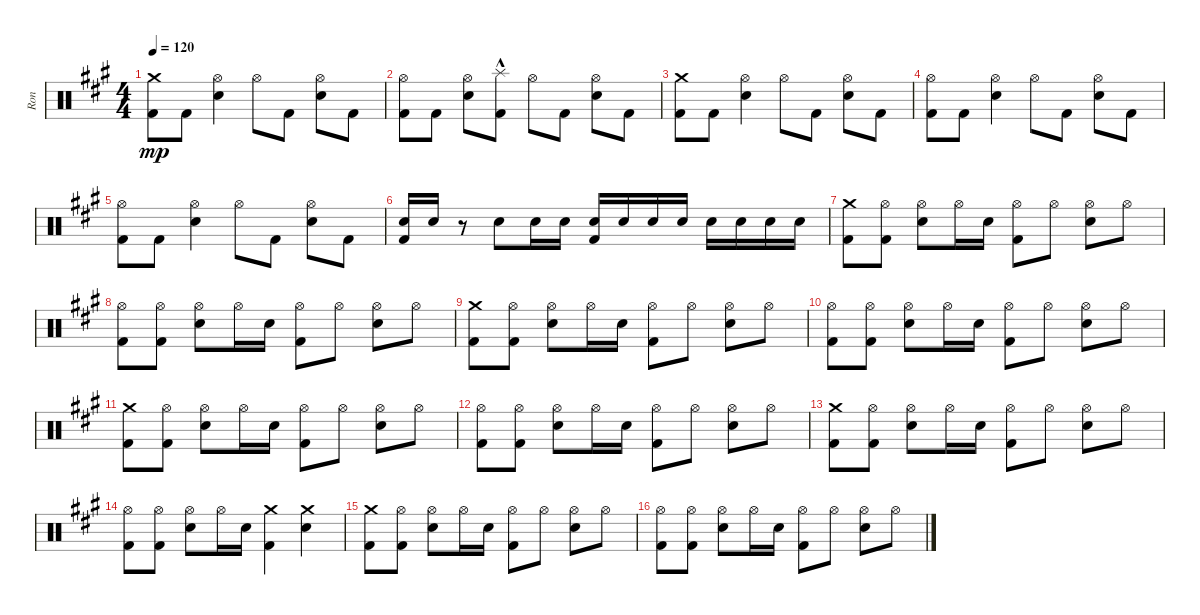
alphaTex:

\track ("Ron" "Ron") {instrument percussion}
\staff {score}
\articulation defaults
\ts (4 4)
\tempo 120
\clef neutral
\ks a
("Crash medium (hit)" "Kick (hit) 2").8{dy mp} "Kick (hit) 2".8 ("Hi-Hat (open)" "Electric Snare (hit)").4 "Hi-Hat (open)".8 "Kick (hit) 2".8 ("Hi-Hat (open)" "Electric Snare (hit)").8 "Kick (hit) 2".8 |
("Hi-Hat (open)" "Kick (hit) 2").8 "Kick (hit) 2".8 ("Hi-Hat (open)" "Electric Snare (hit)").8 ("Splash (hit)"{hac} "Kick (hit) 2").8 "Hi-Hat (open)".8 "Kick (hit) 2".8 ("Hi-Hat (open)" "Electric Snare (hit)").8 "Kick (hit) 2".8 |
("Crash medium (hit)" "Kick (hit) 2").8 "Kick (hit) 2".8 ("Hi-Hat (open)" "Electric Snare (hit)").4 "Hi-Hat (open)".8 "Kick (hit) 2".8 ("Hi-Hat (open)" "Electric Snare (hit)").8 "Kick (hit) 2".8 |
("Hi-Hat (open)" "Kick (hit) 2").8 "Kick (hit) 2".8 ("Hi-Hat (open)" "Electric Snare (hit)").4 "Hi-Hat (open)".8 "Kick (hit) 2".8 ("Hi-Hat (open)" "Electric Snare (hit)").8 "Kick (hit) 2".8 |
("Hi-Hat (open)" "Kick (hit) 2").8 "Kick (hit) 2".8 ("Hi-Hat (open)" "Electric Snare (hit)").4 "Hi-Hat (open)".8 "Kick (hit) 2".8 ("Hi-Hat (open)" "Electric Snare (hit)").8 "Kick (hit) 2".8 |
("Electric Snare (hit)" "Kick (hit) 2").16 "Electric Snare (hit)".16 r.8 "Electric Snare (hit)".8 "Electric Snare (hit)".16 "Electric Snare (hit)".16 ("Electric Snare (hit)" "Kick (hit) 2").16 "Electric Snare (hit)".16 "Electric Snare (hit)".16 "Electric Snare (hit)".16 "Electric Snare (hit)".16 "Electric Snare (hit)".16 "Electric Snare (hit)".16 "Electric Snare (hit)".16 |
("Crash medium (hit)" "Kick (hit) 2").8 ("Hi-Hat (open)" "Kick (hit) 2").8 ("Hi-Hat (open)" "Electric Snare (hit)").8 "Hi-Hat (open)".16 "Electric Snare (hit)".16 ("Hi-Hat (open)" "Kick (hit) 2").8 "Hi-Hat (open)".8 ("Hi-Hat (open)" "Electric Snare (hit)").8 "Hi-Hat (open)".8 |
("Hi-Hat (open)" "Kick (hit) 2").8 ("Hi-Hat (open)" "Kick (hit) 2").8 ("Hi-Hat (open)" "Electric Snare (hit)").8 "Hi-Hat (open)".16 "Electric Snare (hit)".16 ("Hi-Hat (open)" "Kick (hit) 2").8 "Hi-Hat (open)".8 ("Hi-Hat (open)" "Electric Snare (hit)").8 "Hi-Hat (open)".8 |
("Crash medium (hit)" "Kick (hit) 2").8 ("Hi-Hat (open)" "Kick (hit) 2").8 ("Hi-Hat (open)" "Electric Snare (hit)").8 "Hi-Hat (open)".16 "Electric Snare (hit)".16 ("Hi-Hat (open)" "Kick (hit) 2").8 "Hi-Hat (open)".8 ("Hi-Hat (open)" "Electric Snare (hit)").8 "Hi-Hat (open)".8 |
("Hi-Hat (open)" "Kick (hit) 2").8 ("Hi-Hat (open)" "Kick (hit) 2").8 ("Hi-Hat (open)" "Electric Snare (hit)").8 "Hi-Hat (open)".16 "Electric Snare (hit)".16 ("Hi-Hat (open)" "Kick (hit) 2").8 "Hi-Hat (open)".8 ("Hi-Hat (open)" "Electric Snare (hit)").8 "Hi-Hat (open)".8 |
("Crash medium (hit)" "Kick (hit) 2").8 ("Hi-Hat (open)" "Kick (hit) 2").8 ("Hi-Hat (open)" "Electric Snare (hit)").8 "Hi-Hat (open)".16 "Electric Snare (hit)".16 ("Hi-Hat (open)" "Kick (hit) 2").8 "Hi-Hat (open)".8 ("Hi-Hat (open)" "Electric Snare (hit)").8 "Hi-Hat (open)".8 |
("Hi-Hat (open)" "Kick (hit) 2").8 ("Hi-Hat (open)" "Kick (hit) 2").8 ("Hi-Hat (open)" "Electric Snare (hit)").8 "Hi-Hat (open)".16 "Electric Snare (hit)".16 ("Hi-Hat (open)" "Kick (hit) 2").8 "Hi-Hat (open)".8 ("Hi-Hat (open)" "Electric Snare (hit)").8 "Hi-Hat (open)".8 |
("Crash medium (hit)" "Kick (hit) 2").8 ("Hi-Hat (open)" "Kick (hit) 2").8 ("Hi-Hat (open)" "Electric Snare (hit)").8 "Hi-Hat (open)".16 "Electric Snare (hit)".16 ("Hi-Hat (open)" "Kick (hit) 2").8 "Hi-Hat (open)".8 ("Hi-Hat (open)" "Electric Snare (hit)").8 "Hi-Hat (open)".8 |
("Hi-Hat (open)" "Kick (hit) 2").8 ("Hi-Hat (open)" "Kick (hit) 2").8 ("Hi-Hat (open)" "Electric Snare (hit)").8 "Hi-Hat (open)".16 "Electric Snare (hit)".16 ("Crash medium (hit)" "Kick (hit) 2").4 ("Crash medium (hit)" "Electric Snare (hit)").4 |
("Crash medium (hit)" "Kick (hit) 2").8 ("Hi-Hat (open)" "Kick (hit) 2").8 ("Hi-Hat (open)" "Electric Snare (hit)").8 "Hi-Hat (open)".16 "Electric Snare (hit)".16 ("Hi-Hat (open)" "Kick (hit) 2").8 "Hi-Hat (open)".8 ("Hi-Hat (open)" "Electric Snare (hit)").8 "Hi-Hat (open)".8 |
("Hi-Hat (open)" "Kick (hit) 2").8 ("Hi-Hat (open)" "Kick (hit) 2").8 ("Hi-Hat (open)" "Electric Snare (hit)").8 "Hi-Hat (open)".16 "Electric Snare (hit)".16 ("Hi-Hat (open)" "Kick (hit) 2").8 "Hi-Hat (open)".8 ("Hi-Hat (open)" "Electric Snare (hit)").8 "Hi-Hat (open)".8
